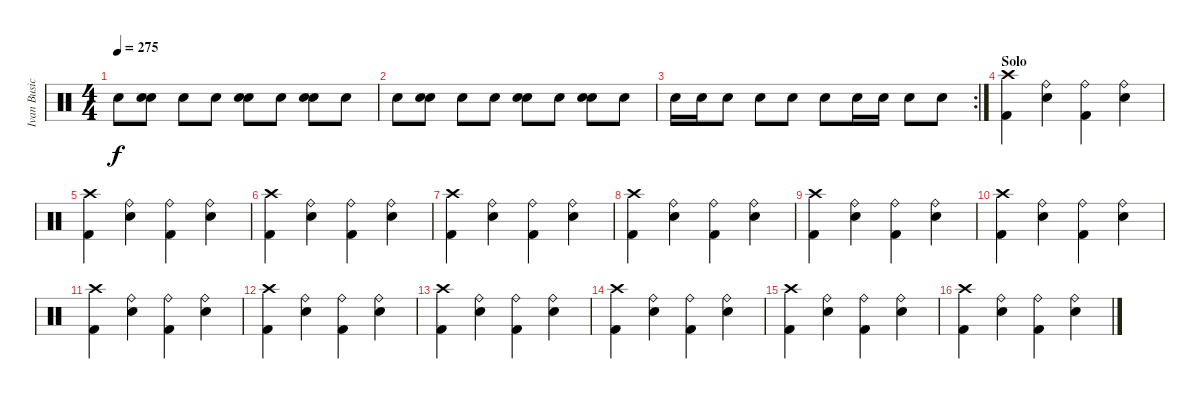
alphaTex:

\track ("Ivan Busic" "Ivan Busic") {instrument percussion}
\staff {score}
\articulation defaults
\ts (4 4)
\tempo 275
\clef neutral
\ks c "Electric Snare (hit)".8{dy f}
("Snare (hit) 2" "Electric Snare (hit)").8 "Electric Snare (hit)".8 "Electric Snare (hit)".8 ("Snare (hit) 2" "Electric Snare (hit)").8 "Electric Snare (hit)".8 ("Snare (hit) 2" "Electric Snare (hit)").8 "Electric Snare (hit)".8 |
"Electric Snare (hit)".8 ("Snare (hit) 2" "Electric Snare (hit)").8 "Electric Snare (hit)".8 "Electric Snare (hit)".8 ("Snare (hit) 2" "Electric Snare (hit)").8 "Electric Snare (hit)".8 ("Snare (hit) 2" "Electric Snare (hit)").8 "Electric Snare (hit)".8 |
\rc 2 "Electric Snare (hit)".16 "Electric Snare (hit)".16 "Electric Snare (hit)".8 "Electric Snare (hit)".8 "Electric Snare (hit)".8 "Electric Snare (hit)".8 "Electric Snare (hit)".16 "Electric Snare (hit)".16 "Electric Snare (hit)".8 "Electric Snare (hit)".8
|
\section ("" "Solo")
("Crash high (hit)" "Kick (hit) 2").4 ("Ride (bell)" "Electric Snare (hit)").4 ("Ride (bell)" "Kick (hit) 2").4 ("Ride (bell)" "Electric Snare (hit)").4 |
("Crash high (hit)" "Kick (hit) 2").4 ("Ride (bell)" "Electric Snare (hit)").4 ("Ride (bell)" "Kick (hit) 2").4 ("Ride (bell)" "Electric Snare (hit)").4 |
("Crash high (hit)" "Kick (hit) 2").4 ("Ride (bell)" "Electric Snare (hit)").4 ("Ride (bell)" "Kick (hit) 2").4 ("Ride (bell)" "Electric Snare (hit)").4 |
("Crash high (hit)" "Kick (hit) 2").4 ("Ride (bell)" "Electric Snare (hit)").4 ("Ride (bell)" "Kick (hit) 2").4 ("Ride (bell)" "Electric Snare (hit)").4 |
("Crash high (hit)" "Kick (hit) 2").4 ("Ride (bell)" "Electric Snare (hit)").4 ("Ride (bell)" "Kick (hit) 2").4 ("Ride (bell)" "Electric Snare (hit)").4 |
("Crash high (hit)" "Kick (hit) 2").4 ("Ride (bell)" "Electric Snare (hit)").4 ("Ride (bell)" "Kick (hit) 2").4 ("Ride (bell)" "Electric Snare (hit)").4 |
("Crash high (hit)" "Kick (hit) 2").4 ("Ride (bell)" "Electric Snare (hit)").4 ("Ride (bell)" "Kick (hit) 2").4 ("Ride (bell)" "Electric Snare (hit)").4 |
("Crash high (hit)" "Kick (hit) 2").4 ("Ride (bell)" "Electric Snare (hit)").4 ("Ride (bell)" "Kick (hit) 2").4 ("Ride (bell)" "Electric Snare (hit)").4 |
("Crash high (hit)" "Kick (hit) 2").4 ("Ride (bell)" "Electric Snare (hit)").4 ("Ride (bell)" "Kick (hit) 2").4 ("Ride (bell)" "Electric Snare (hit)").4 |
("Crash high (hit)" "Kick (hit) 2").4 ("Ride (bell)" "Electric Snare (hit)").4 ("Ride (bell)" "Kick (hit) 2").4 ("Ride (bell)" "Electric Snare (hit)").4 |
("Crash high (hit)" "Kick (hit) 2").4 ("Ride (bell)" "Electric Snare (hit)").4 ("Ride (bell)" "Kick (hit) 2").4 ("Ride (bell)" "Electric Snare (hit)").4 |
("Crash high (hit)" "Kick (hit) 2").4 ("Ride (bell)" "Electric Snare (hit)").4 ("Ride (bell)" "Kick (hit) 2").4 ("Ride (bell)" "Electric Snare (hit)").4 |
("Crash high (hit)" "Kick (hit) 2").4 ("Ride (bell)" "Electric Snare (hit)").4 ("Ride (bell)" "Kick (hit) 2").4 ("Ride (bell)" "Electric Snare (hit)").4
